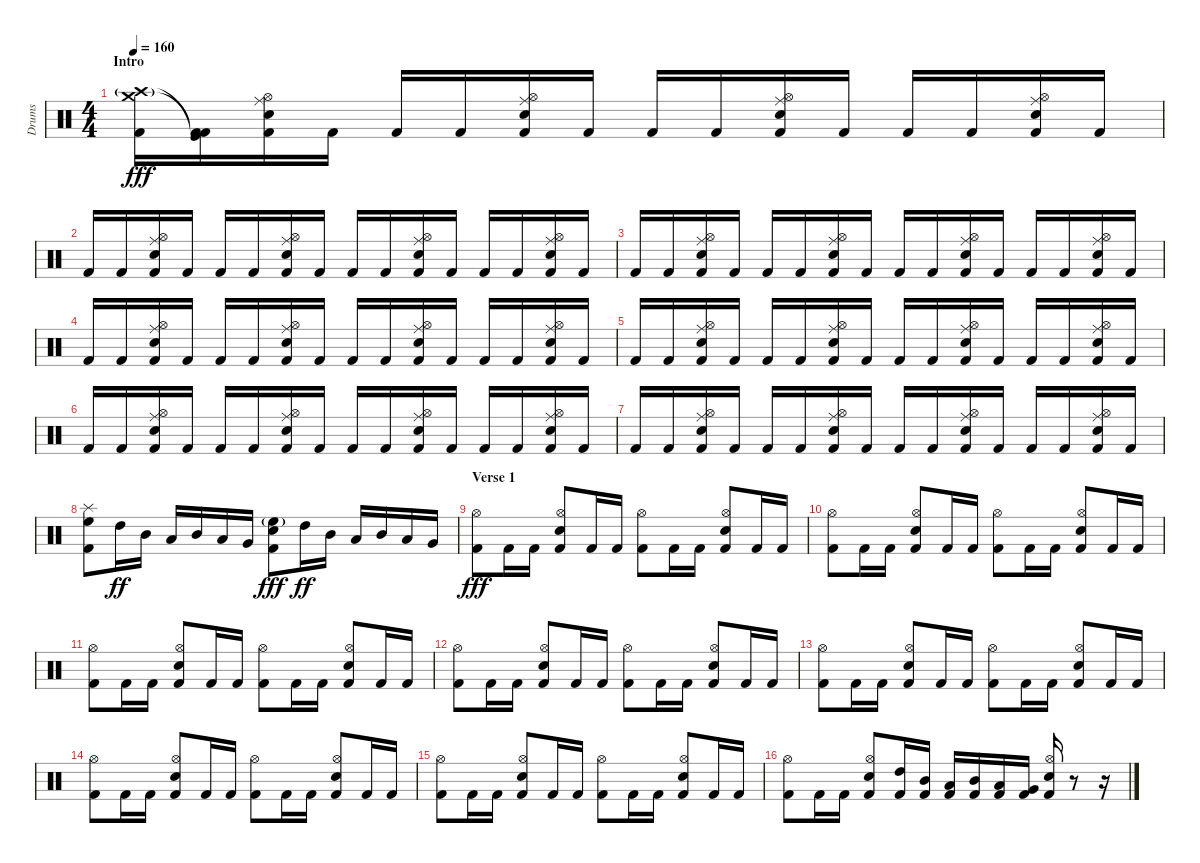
\track ("Drums" "Drums") {instrument percussion}
\staff {score}
\articulation defaults
\ts (4 4)
\section ("" "Intro")
\tempo 160
\clef neutral
\ks c
("Crash medium (hit)" "Crash high (hit)"{g} "Kick (hit) 2").16{dy fff} ("Kick (hit) 2"{t} "Kick (hit)"{t} "Kick (hit) 2").16 ("Hi-Hat (open)" "Ride (middle)" "Snare (hit) 2" "Kick (hit) 2").16 "Kick (hit) 2".16 "Kick (hit) 2".16 "Kick (hit) 2".16 ("Hi-Hat (open)" "Ride (middle)" "Snare (hit) 2" "Kick (hit) 2").16 "Kick (hit) 2".16 "Kick (hit) 2".16 "Kick (hit) 2".16 ("Hi-Hat (open)" "Ride (middle)" "Snare (hit) 2" "Kick (hit) 2").16 "Kick (hit) 2".16 "Kick (hit) 2".16 "Kick (hit) 2".16 ("Hi-Hat (open)" "Ride (middle)" "Snare (hit) 2" "Kick (hit) 2").16 "Kick (hit) 2".16 |
"Kick (hit) 2".16 "Kick (hit) 2".16 ("Hi-Hat (open)" "Ride (middle)" "Snare (hit) 2" "Kick (hit) 2").16 "Kick (hit) 2".16 "Kick (hit) 2".16 "Kick (hit) 2".16 ("Hi-Hat (open)" "Ride (middle)" "Snare (hit) 2" "Kick (hit) 2").16 "Kick (hit) 2".16 "Kick (hit) 2".16 "Kick (hit) 2".16 ("Hi-Hat (open)" "Ride (middle)" "Snare (hit) 2" "Kick (hit) 2").16 "Kick (hit) 2".16 "Kick (hit) 2".16 "Kick (hit) 2".16 ("Hi-Hat (open)" "Ride (middle)" "Snare (hit) 2" "Kick (hit) 2").16 "Kick (hit) 2".16 |
"Kick (hit) 2".16 "Kick (hit) 2".16 ("Hi-Hat (open)" "Ride (middle)" "Snare (hit) 2" "Kick (hit) 2").16 "Kick (hit) 2".16 "Kick (hit) 2".16 "Kick (hit) 2".16 ("Hi-Hat (open)" "Ride (middle)" "Snare (hit) 2" "Kick (hit) 2").16 "Kick (hit) 2".16 "Kick (hit) 2".16 "Kick (hit) 2".16 ("Hi-Hat (open)" "Ride (middle)" "Snare (hit) 2" "Kick (hit) 2").16 "Kick (hit) 2".16 "Kick (hit) 2".16 "Kick (hit) 2".16 ("Hi-Hat (open)" "Ride (middle)" "Snare (hit) 2" "Kick (hit) 2").16 "Kick (hit) 2".16 |
"Kick (hit) 2".16 "Kick (hit) 2".16 ("Hi-Hat (open)" "Ride (middle)" "Snare (hit) 2" "Kick (hit) 2").16 "Kick (hit) 2".16 "Kick (hit) 2".16 "Kick (hit) 2".16 ("Hi-Hat (open)" "Ride (middle)" "Snare (hit) 2" "Kick (hit) 2").16 "Kick (hit) 2".16 "Kick (hit) 2".16 "Kick (hit) 2".16 ("Hi-Hat (open)" "Ride (middle)" "Snare (hit) 2" "Kick (hit) 2").16 "Kick (hit) 2".16 "Kick (hit) 2".16 "Kick (hit) 2".16 ("Hi-Hat (open)" "Ride (middle)" "Snare (hit) 2" "Kick (hit) 2").16 "Kick (hit) 2".16 |
"Kick (hit) 2".16 "Kick (hit) 2".16 ("Hi-Hat (open)" "Ride (middle)" "Snare (hit) 2" "Kick (hit) 2").16 "Kick (hit) 2".16 "Kick (hit) 2".16 "Kick (hit) 2".16 ("Hi-Hat (open)" "Ride (middle)" "Snare (hit) 2" "Kick (hit) 2").16 "Kick (hit) 2".16 "Kick (hit) 2".16 "Kick (hit) 2".16 ("Hi-Hat (open)" "Ride (middle)" "Snare (hit) 2" "Kick (hit) 2").16 "Kick (hit) 2".16 "Kick (hit) 2".16 "Kick (hit) 2".16 ("Hi-Hat (open)" "Ride (middle)" "Snare (hit) 2" "Kick (hit) 2").16 "Kick (hit) 2".16 |
"Kick (hit) 2".16 "Kick (hit) 2".16 ("Hi-Hat (open)" "Ride (middle)" "Snare (hit) 2" "Kick (hit) 2").16 "Kick (hit) 2".16 "Kick (hit) 2".16 "Kick (hit) 2".16 ("Hi-Hat (open)" "Ride (middle)" "Snare (hit) 2" "Kick (hit) 2").16 "Kick (hit) 2".16 "Kick (hit) 2".16 "Kick (hit) 2".16 ("Hi-Hat (open)" "Ride (middle)" "Snare (hit) 2" "Kick (hit) 2").16 "Kick (hit) 2".16 "Kick (hit) 2".16 "Kick (hit) 2".16 ("Hi-Hat (open)" "Ride (middle)" "Snare (hit) 2" "Kick (hit) 2").16 "Kick (hit) 2".16 |
"Kick (hit) 2".16 "Kick (hit) 2".16 ("Hi-Hat (open)" "Ride (middle)" "Snare (hit) 2" "Kick (hit) 2").16 "Kick (hit) 2".16 "Kick (hit) 2".16 "Kick (hit) 2".16 ("Hi-Hat (open)" "Ride (middle)" "Snare (hit) 2" "Kick (hit) 2").16 "Kick (hit) 2".16 "Kick (hit) 2".16 "Kick (hit) 2".16 ("Hi-Hat (open)" "Ride (middle)" "Snare (hit) 2" "Kick (hit) 2").16 "Kick (hit) 2".16 "Kick (hit) 2".16 "Kick (hit) 2".16 ("Hi-Hat (open)" "Ride (middle)" "Snare (hit) 2" "Kick (hit) 2").16 "Kick (hit) 2".16 |
("Splash (hit)" "High Floor Tom (hit)" "Kick (hit) 2").8 "High Tom (hit)".16{dy ff} "Mid Tom (hit)".16 "Low Tom (hit)".16 "Mid Tom (hit)".16 "Low Tom (hit)".16 "Very Low Tom (hit)".16 ("High Floor Tom (hit)"{g} "Snare (hit) 2" "Kick (hit) 2").8{dy fff} "High Tom (hit)".16{dy ff} "Mid Tom (hit)".16 "Low Tom (hit)".16 "Mid Tom (hit)".16 "Low Tom (hit)".16 "Very Low Tom (hit)".16 |
\section ("" "Verse 1")
("Hi-Hat (open)" "Kick (hit) 2").8{dy fff} "Kick (hit) 2".16 "Kick (hit) 2".16 ("Hi-Hat (open)" "Snare (hit) 2" "Kick (hit) 2").8 "Kick (hit) 2".16 "Kick (hit) 2".16 ("Hi-Hat (open)" "Kick (hit) 2").8 "Kick (hit) 2".16 "Kick (hit) 2".16 ("Hi-Hat (open)" "Snare (hit) 2" "Kick (hit) 2").8 "Kick (hit) 2".16 "Kick (hit) 2".16 |
("Hi-Hat (open)" "Kick (hit) 2").8 "Kick (hit) 2".16 "Kick (hit) 2".16 ("Hi-Hat (open)" "Snare (hit) 2" "Kick (hit) 2").8 "Kick (hit) 2".16 "Kick (hit) 2".16 ("Hi-Hat (open)" "Kick (hit) 2").8 "Kick (hit) 2".16 "Kick (hit) 2".16 ("Hi-Hat (open)" "Snare (hit) 2" "Kick (hit) 2").8 "Kick (hit) 2".16 "Kick (hit) 2".16 |
("Hi-Hat (open)" "Kick (hit) 2").8 "Kick (hit) 2".16 "Kick (hit) 2".16 ("Hi-Hat (open)" "Snare (hit) 2" "Kick (hit) 2").8 "Kick (hit) 2".16 "Kick (hit) 2".16 ("Hi-Hat (open)" "Kick (hit) 2").8 "Kick (hit) 2".16 "Kick (hit) 2".16 ("Hi-Hat (open)" "Snare (hit) 2" "Kick (hit) 2").8 "Kick (hit) 2".16 "Kick (hit) 2".16 |
("Hi-Hat (open)" "Kick (hit) 2").8 "Kick (hit) 2".16 "Kick (hit) 2".16 ("Hi-Hat (open)" "Snare (hit) 2" "Kick (hit) 2").8 "Kick (hit) 2".16 "Kick (hit) 2".16 ("Hi-Hat (open)" "Kick (hit) 2").8 "Kick (hit) 2".16 "Kick (hit) 2".16 ("Hi-Hat (open)" "Snare (hit) 2" "Kick (hit) 2").8 "Kick (hit) 2".16 "Kick (hit) 2".16 |
("Hi-Hat (open)" "Kick (hit) 2").8 "Kick (hit) 2".16 "Kick (hit) 2".16 ("Hi-Hat (open)" "Snare (hit) 2" "Kick (hit) 2").8 "Kick (hit) 2".16 "Kick (hit) 2".16 ("Hi-Hat (open)" "Kick (hit) 2").8 "Kick (hit) 2".16 "Kick (hit) 2".16 ("Hi-Hat (open)" "Snare (hit) 2" "Kick (hit) 2").8 "Kick (hit) 2".16 "Kick (hit) 2".16 |
("Hi-Hat (open)" "Kick (hit) 2").8 "Kick (hit) 2".16 "Kick (hit) 2".16 ("Hi-Hat (open)" "Snare (hit) 2" "Kick (hit) 2").8 "Kick (hit) 2".16 "Kick (hit) 2".16 ("Hi-Hat (open)" "Kick (hit) 2").8 "Kick (hit) 2".16 "Kick (hit) 2".16 ("Hi-Hat (open)" "Snare (hit) 2" "Kick (hit) 2").8 "Kick (hit) 2".16 "Kick (hit) 2".16 |
("Hi-Hat (open)" "Kick (hit) 2").8 "Kick (hit) 2".16 "Kick (hit) 2".16 ("Hi-Hat (open)" "Snare (hit) 2" "Kick (hit) 2").8 "Kick (hit) 2".16 "Kick (hit) 2".16 ("Hi-Hat (open)" "Kick (hit) 2").8 "Kick (hit) 2".16 "Kick (hit) 2".16 ("Hi-Hat (open)" "Snare (hit) 2" "Kick (hit) 2").8 "Kick (hit) 2".16 "Kick (hit) 2".16 |
("Hi-Hat (open)" "Kick (hit) 2").8 "Kick (hit) 2".16 "Kick (hit) 2".16 ("Hi-Hat (open)" "Snare (hit) 2" "Kick (hit) 2").8 ("High Tom (hit)" "Kick (hit) 2").16 ("Mid Tom (hit)" "Kick (hit) 2").16 ("Low Tom (hit)" "Kick (hit) 2").16 ("Mid Tom (hit)" "Kick (hit) 2").16 ("Low Tom (hit)" "Kick (hit) 2").16 ("Very Low Tom (hit)" "Kick (hit) 2").16 ("Hi-Hat (open)" "Snare (hit) 2" "Kick (hit) 2").16 r.8 r.16
